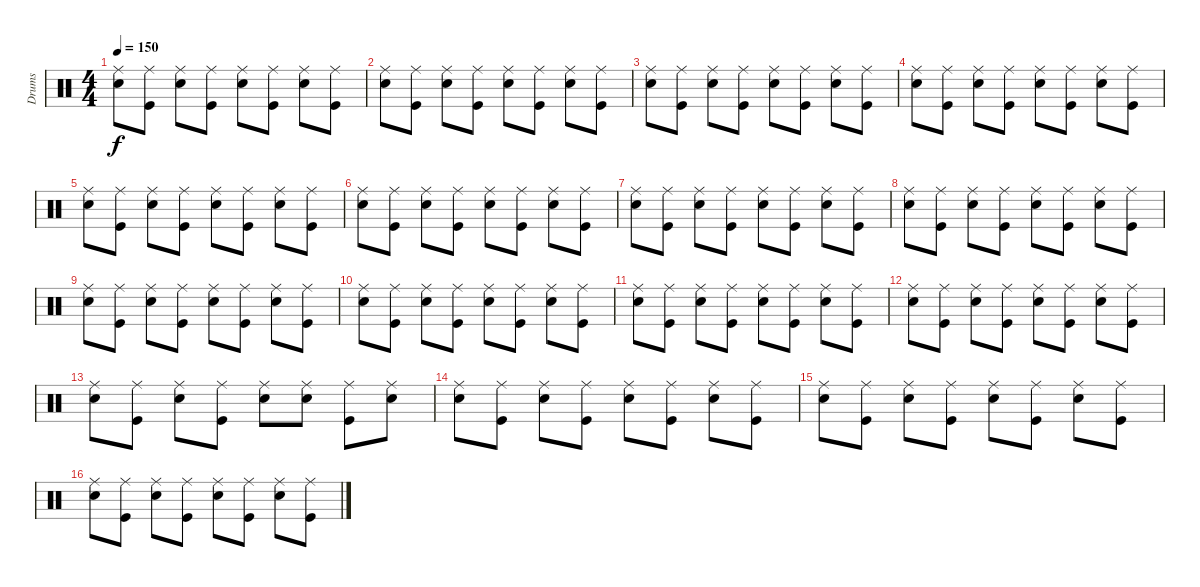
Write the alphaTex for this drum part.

\track ("Drums" "Drums") {instrument percussion}
\staff {score}
\articulation defaults
\ts (4 4)
\tempo 150
\clef neutral
\ks c
("Ride (middle)" "Electric Snare (hit)").8{dy f} ("Ride (middle)" "Kick (hit)").8 ("Ride (middle)" "Electric Snare (hit)").8 ("Ride (middle)" "Kick (hit)").8 ("Ride (middle)" "Electric Snare (hit)").8 ("Ride (middle)" "Kick (hit)").8 ("Ride (middle)" "Electric Snare (hit)").8 ("Ride (middle)" "Kick (hit)").8 |
("Ride (middle)" "Electric Snare (hit)").8 ("Ride (middle)" "Kick (hit)").8 ("Ride (middle)" "Electric Snare (hit)").8 ("Ride (middle)" "Kick (hit)").8 ("Ride (middle)" "Electric Snare (hit)").8 ("Ride (middle)" "Kick (hit)").8 ("Ride (middle)" "Electric Snare (hit)").8 ("Ride (middle)" "Kick (hit)").8 |
("Ride (middle)" "Electric Snare (hit)").8 ("Ride (middle)" "Kick (hit)").8 ("Ride (middle)" "Electric Snare (hit)").8 ("Ride (middle)" "Kick (hit)").8 ("Ride (middle)" "Electric Snare (hit)").8 ("Ride (middle)" "Kick (hit)").8 ("Ride (middle)" "Electric Snare (hit)").8 ("Ride (middle)" "Kick (hit)").8 |
("Ride (middle)" "Electric Snare (hit)").8 ("Ride (middle)" "Kick (hit)").8 ("Ride (middle)" "Electric Snare (hit)").8 ("Ride (middle)" "Kick (hit)").8 ("Ride (middle)" "Electric Snare (hit)").8 ("Ride (middle)" "Kick (hit)").8 ("Ride (middle)" "Electric Snare (hit)").8 ("Ride (middle)" "Kick (hit)").8 |
("Ride (middle)" "Electric Snare (hit)").8 ("Ride (middle)" "Kick (hit)").8 ("Ride (middle)" "Electric Snare (hit)").8 ("Ride (middle)" "Kick (hit)").8 ("Ride (middle)" "Electric Snare (hit)").8 ("Ride (middle)" "Kick (hit)").8 ("Ride (middle)" "Electric Snare (hit)").8 ("Ride (middle)" "Kick (hit)").8 |
("Ride (middle)" "Electric Snare (hit)").8 ("Ride (middle)" "Kick (hit)").8 ("Ride (middle)" "Electric Snare (hit)").8 ("Ride (middle)" "Kick (hit)").8 ("Ride (middle)" "Electric Snare (hit)").8 ("Ride (middle)" "Kick (hit)").8 ("Ride (middle)" "Electric Snare (hit)").8 ("Ride (middle)" "Kick (hit)").8 |
("Ride (middle)" "Electric Snare (hit)").8 ("Ride (middle)" "Kick (hit)").8 ("Ride (middle)" "Electric Snare (hit)").8 ("Ride (middle)" "Kick (hit)").8 ("Ride (middle)" "Electric Snare (hit)").8 ("Ride (middle)" "Kick (hit)").8 ("Ride (middle)" "Electric Snare (hit)").8 ("Ride (middle)" "Kick (hit)").8 |
("Ride (middle)" "Electric Snare (hit)").8 ("Ride (middle)" "Kick (hit)").8 ("Ride (middle)" "Electric Snare (hit)").8 ("Ride (middle)" "Kick (hit)").8 ("Ride (middle)" "Electric Snare (hit)").8 ("Ride (middle)" "Kick (hit)").8 ("Ride (middle)" "Electric Snare (hit)").8 ("Ride (middle)" "Kick (hit)").8 |
("Ride (middle)" "Electric Snare (hit)").8 ("Ride (middle)" "Kick (hit)").8 ("Ride (middle)" "Electric Snare (hit)").8 ("Ride (middle)" "Kick (hit)").8 ("Ride (middle)" "Electric Snare (hit)").8 ("Ride (middle)" "Kick (hit)").8 ("Ride (middle)" "Electric Snare (hit)").8 ("Ride (middle)" "Kick (hit)").8 |
("Ride (middle)" "Electric Snare (hit)").8 ("Ride (middle)" "Kick (hit)").8 ("Ride (middle)" "Electric Snare (hit)").8 ("Ride (middle)" "Kick (hit)").8 ("Ride (middle)" "Electric Snare (hit)").8 ("Ride (middle)" "Kick (hit)").8 ("Ride (middle)" "Electric Snare (hit)").8 ("Ride (middle)" "Kick (hit)").8 |
("Ride (middle)" "Electric Snare (hit)").8 ("Ride (middle)" "Kick (hit)").8 ("Ride (middle)" "Electric Snare (hit)").8 ("Ride (middle)" "Kick (hit)").8 ("Ride (middle)" "Electric Snare (hit)").8 ("Ride (middle)" "Kick (hit)").8 ("Ride (middle)" "Electric Snare (hit)").8 ("Ride (middle)" "Kick (hit)").8 |
("Ride (middle)" "Electric Snare (hit)").8 ("Ride (middle)" "Kick (hit)").8 ("Ride (middle)" "Electric Snare (hit)").8 ("Ride (middle)" "Kick (hit)").8 ("Ride (middle)" "Electric Snare (hit)").8 ("Ride (middle)" "Kick (hit)").8 ("Ride (middle)" "Electric Snare (hit)").8 ("Ride (middle)" "Kick (hit)").8 |
("Ride (middle)" "Electric Snare (hit)").8 ("Ride (middle)" "Kick (hit)").8 ("Ride (middle)" "Electric Snare (hit)").8 ("Ride (middle)" "Kick (hit)").8 ("Ride (middle)" "Electric Snare (hit)").8 ("Ride (middle)" "Electric Snare (hit)").8 ("Ride (middle)" "Kick (hit)").8 ("Ride (middle)" "Electric Snare (hit)").8 |
("Ride (middle)" "Electric Snare (hit)").8 ("Ride (middle)" "Kick (hit)").8 ("Ride (middle)" "Electric Snare (hit)").8 ("Ride (middle)" "Kick (hit)").8 ("Ride (middle)" "Electric Snare (hit)").8 ("Ride (middle)" "Kick (hit)").8 ("Ride (middle)" "Electric Snare (hit)").8 ("Ride (middle)" "Kick (hit)").8 |
("Ride (middle)" "Electric Snare (hit)").8 ("Ride (middle)" "Kick (hit)").8 ("Ride (middle)" "Electric Snare (hit)").8 ("Ride (middle)" "Kick (hit)").8 ("Ride (middle)" "Electric Snare (hit)").8 ("Ride (middle)" "Kick (hit)").8 ("Ride (middle)" "Electric Snare (hit)").8 ("Ride (middle)" "Kick (hit)").8 |
("Ride (middle)" "Electric Snare (hit)").8 ("Ride (middle)" "Kick (hit)").8 ("Ride (middle)" "Electric Snare (hit)").8 ("Ride (middle)" "Kick (hit)").8 ("Ride (middle)" "Electric Snare (hit)").8 ("Ride (middle)" "Kick (hit)").8 ("Ride (middle)" "Electric Snare (hit)").8 ("Ride (middle)" "Kick (hit)").8
